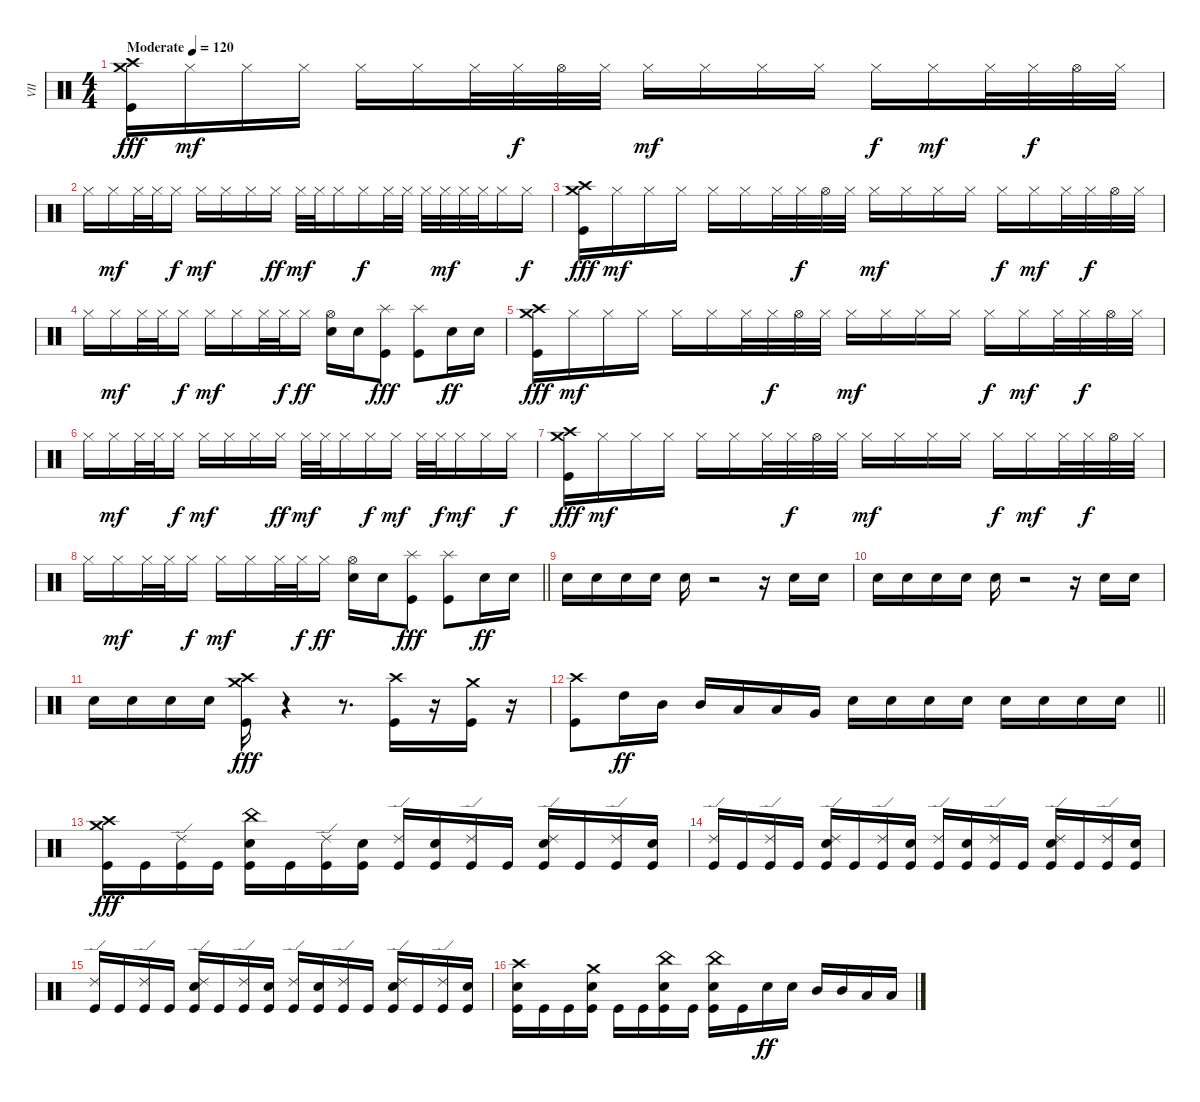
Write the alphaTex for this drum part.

\track ("VII" "VII") {instrument percussion}
\staff {score}
\articulation defaults
\ts (4 4)
\tempo (120 "Moderate")
\tempo 122
\tempo (120 "Moderate")
\clef neutral
\ks c
("Crash high (hit)" "Crash medium (hit)" "Kick (hit)").16{dy fff} "Hi-Hat (closed)".16{dy mf} "Hi-Hat (closed)".16 "Hi-Hat (closed)".16 "Hi-Hat (closed)".16 "Hi-Hat (closed)".16 "Hi-Hat (closed)".32 "Hi-Hat (closed)".32{dy f} "Hi-Hat (open)".32 "Hi-Hat (closed)".32 "Hi-Hat (closed)".16{dy mf} "Hi-Hat (closed)".16 "Hi-Hat (closed)".16 "Hi-Hat (closed)".16 "Hi-Hat (closed)".16{dy f} "Hi-Hat (closed)".16{dy mf} "Hi-Hat (closed)".32 "Hi-Hat (closed)".32{dy f} "Hi-Hat (open)".32 "Hi-Hat (closed)".32 |
"Hi-Hat (closed)".16 "Hi-Hat (closed)".16{dy mf} "Hi-Hat (closed)".32 "Hi-Hat (closed)".32 "Hi-Hat (closed)".16{dy f} "Hi-Hat (closed)".16{dy mf} "Hi-Hat (closed)".16 "Hi-Hat (closed)".16 "Hi-Hat (closed)".16{dy ff} "Hi-Hat (closed)".32{dy mf} "Hi-Hat (closed)".32 "Hi-Hat (closed)".16 "Hi-Hat (closed)".16{dy f} "Hi-Hat (closed)".32 "Hi-Hat (closed)".32 "Hi-Hat (closed)".32 "Hi-Hat (closed)".32{dy mf} "Hi-Hat (closed)".32 "Hi-Hat (closed)".32 "Hi-Hat (closed)".16 "Hi-Hat (closed)".16{dy f} |
("Crash high (hit)" "Crash medium (hit)" "Kick (hit)").16{dy fff} "Hi-Hat (closed)".16{dy mf} "Hi-Hat (closed)".16 "Hi-Hat (closed)".16 "Hi-Hat (closed)".16 "Hi-Hat (closed)".16 "Hi-Hat (closed)".32 "Hi-Hat (closed)".32{dy f} "Hi-Hat (open)".32 "Hi-Hat (closed)".32 "Hi-Hat (closed)".16{dy mf} "Hi-Hat (closed)".16 "Hi-Hat (closed)".16 "Hi-Hat (closed)".16 "Hi-Hat (closed)".16{dy f} "Hi-Hat (closed)".16{dy mf} "Hi-Hat (closed)".32 "Hi-Hat (closed)".32{dy f} "Hi-Hat (open)".32 "Hi-Hat (closed)".32 |
"Hi-Hat (closed)".16 "Hi-Hat (closed)".16{dy mf} "Hi-Hat (closed)".32 "Hi-Hat (closed)".32 "Hi-Hat (closed)".16{dy f} "Hi-Hat (closed)".16{dy mf} "Hi-Hat (closed)".16 "Hi-Hat (closed)".32 "Hi-Hat (closed)".32{dy f} "Hi-Hat (closed)".16{dy ff} ("Hi-Hat (open)" "Snare (hit) 2").16 "Snare (hit) 2".16 ("Splash (hit)" "Kick (hit)").8{dy fff} ("Splash (hit)" "Kick (hit)").8 "Snare (hit) 2".16{dy ff} "Snare (hit) 2".16 |
("Crash high (hit)" "Crash medium (hit)" "Kick (hit)").16{dy fff} "Hi-Hat (closed)".16{dy mf} "Hi-Hat (closed)".16 "Hi-Hat (closed)".16 "Hi-Hat (closed)".16 "Hi-Hat (closed)".16 "Hi-Hat (closed)".32 "Hi-Hat (closed)".32{dy f} "Hi-Hat (open)".32 "Hi-Hat (closed)".32 "Hi-Hat (closed)".16{dy mf} "Hi-Hat (closed)".16 "Hi-Hat (closed)".16 "Hi-Hat (closed)".16 "Hi-Hat (closed)".16{dy f} "Hi-Hat (closed)".16{dy mf} "Hi-Hat (closed)".32 "Hi-Hat (closed)".32{dy f} "Hi-Hat (open)".32 "Hi-Hat (closed)".32 |
"Hi-Hat (closed)".16 "Hi-Hat (closed)".16{dy mf} "Hi-Hat (closed)".32 "Hi-Hat (closed)".32 "Hi-Hat (closed)".16{dy f} "Hi-Hat (closed)".16{dy mf} "Hi-Hat (closed)".16 "Hi-Hat (closed)".16 "Hi-Hat (closed)".16{dy ff} "Hi-Hat (closed)".32{dy mf} "Hi-Hat (closed)".32 "Hi-Hat (closed)".16 "Hi-Hat (closed)".16{dy f} "Hi-Hat (closed)".16{dy mf} "Hi-Hat (closed)".32 "Hi-Hat (closed)".32{dy f} "Hi-Hat (closed)".16{dy mf} "Hi-Hat (closed)".16 "Hi-Hat (closed)".16{dy f} |
("Crash high (hit)" "Crash medium (hit)" "Kick (hit)").16{dy fff} "Hi-Hat (closed)".16{dy mf} "Hi-Hat (closed)".16 "Hi-Hat (closed)".16 "Hi-Hat (closed)".16 "Hi-Hat (closed)".16 "Hi-Hat (closed)".32 "Hi-Hat (closed)".32{dy f} "Hi-Hat (open)".32 "Hi-Hat (closed)".32 "Hi-Hat (closed)".16{dy mf} "Hi-Hat (closed)".16 "Hi-Hat (closed)".16 "Hi-Hat (closed)".16 "Hi-Hat (closed)".16{dy f} "Hi-Hat (closed)".16{dy mf} "Hi-Hat (closed)".32 "Hi-Hat (closed)".32{dy f} "Hi-Hat (open)".32 "Hi-Hat (closed)".32 |
\barLineRight lightlight "Hi-Hat (closed)".16 "Hi-Hat (closed)".16{dy mf} "Hi-Hat (closed)".32 "Hi-Hat (closed)".32 "Hi-Hat (closed)".16{dy f} "Hi-Hat (closed)".16{dy mf} "Hi-Hat (closed)".16 "Hi-Hat (closed)".32 "Hi-Hat (closed)".32{dy f} "Hi-Hat (closed)".16{dy ff}
("Hi-Hat (open)" "Snare (hit) 2").16 "Snare (hit) 2".16 ("Splash (hit)" "Kick (hit)").8{dy fff} ("Splash (hit)" "Kick (hit)").8 "Snare (hit) 2".16{dy ff} "Snare (hit) 2".16 |
"Snare (hit) 2".16 "Snare (hit) 2".16 "Snare (hit) 2".16 "Snare (hit) 2".16 "Snare (hit) 2".16 r.2 r.16 "Snare (hit) 2".16 "Snare (hit) 2".16 |
"Snare (hit) 2".16 "Snare (hit) 2".16 "Snare (hit) 2".16 "Snare (hit) 2".16 "Snare (hit) 2".16 r.2 r.16 "Snare (hit) 2".16 "Snare (hit) 2".16 |
"Snare (hit) 2".16 "Snare (hit) 2".16 "Snare (hit) 2".16 "Snare (hit) 2".16 ("Crash high (hit)" "Crash medium (hit)" "Kick (hit)").16{dy fff} r.4 r.8{d} ("Crash high (hit)" "Kick (hit)").16 r.16 ("Crash medium (hit)" "Kick (hit)").16 r.16 |
\barLineRight lightlight
("Crash high (hit)" "Kick (hit)").8 "High Tom (hit)".16{dy ff} "Mid Tom (hit)".16 "Mid Tom (hit)".16 "Low Tom (hit)".16 "Low Tom (hit)".16 "Very Low Tom (hit)".16 "Snare (hit) 2".16 "Snare (hit) 2".16 "Snare (hit) 2".16 "Snare (hit) 2".16 "Snare (hit) 2".16 "Snare (hit) 2".16 "Snare (hit) 2".16 "Snare (hit) 2".16 |
("Crash high (hit)" "Crash medium (hit)" "Kick (hit)").16{dy fff} "Kick (hit)".16 ("Ride (edge) 2" "Kick (hit)").16 "Kick (hit)".16 ("China (hit)" "Snare (hit) 2" "Kick (hit)").16 "Kick (hit)".16 ("Ride (edge) 2" "Kick (hit)").16 ("Snare (hit) 2" "Kick (hit)").16 ("Ride (edge) 2" "Kick (hit)").16 ("Snare (hit) 2" "Kick (hit)").16 ("Ride (edge) 2" "Kick (hit)").16 "Kick (hit)".16 ("Ride (edge) 2" "Snare (hit) 2" "Kick (hit)").16 "Kick (hit)".16 ("Ride (edge) 2" "Kick (hit)").16 ("Snare (hit) 2" "Kick (hit)").16 |
("Ride (edge) 2" "Kick (hit)").16 "Kick (hit)".16 ("Ride (edge) 2" "Kick (hit)").16 "Kick (hit)".16 ("Ride (edge) 2" "Snare (hit) 2" "Kick (hit)").16 "Kick (hit)".16 ("Ride (edge) 2" "Kick (hit)").16 ("Snare (hit) 2" "Kick (hit)").16 ("Ride (edge) 2" "Kick (hit)").16 ("Snare (hit) 2" "Kick (hit)").16 ("Ride (edge) 2" "Kick (hit)").16 "Kick (hit)".16 ("Ride (edge) 2" "Snare (hit) 2" "Kick (hit)").16 "Kick (hit)".16 ("Ride (edge) 2" "Kick (hit)").16 ("Snare (hit) 2" "Kick (hit)").16 |
("Ride (edge) 2" "Kick (hit)").16 "Kick (hit)".16 ("Ride (edge) 2" "Kick (hit)").16 "Kick (hit)".16 ("Ride (edge) 2" "Snare (hit) 2" "Kick (hit)").16 "Kick (hit)".16 ("Ride (edge) 2" "Kick (hit)").16 ("Snare (hit) 2" "Kick (hit)").16 ("Ride (edge) 2" "Kick (hit)").16 ("Snare (hit) 2" "Kick (hit)").16 ("Ride (edge) 2" "Kick (hit)").16 "Kick (hit)".16 ("Ride (edge) 2" "Snare (hit) 2" "Kick (hit)").16 "Kick (hit)".16 ("Ride (edge) 2" "Kick (hit)").16 ("Snare (hit) 2" "Kick (hit)").16 |
("Crash high (hit)" "Snare (hit) 2" "Kick (hit)").16 "Kick (hit)".16 "Kick (hit)".16 ("Crash medium (hit)" "Snare (hit) 2" "Kick (hit)").16 "Kick (hit)".16 "Kick (hit)".16 ("China (hit)" "Snare (hit) 2" "Kick (hit)").16 "Kick (hit)".16 ("China (hit)" "Snare (hit) 2" "Kick (hit)").16 "Kick (hit)".16 "Snare (hit) 2".16{dy ff} "Snare (hit) 2".16 "Mid Tom (hit)".16 "Mid Tom (hit)".16 "Low Tom (hit)".16 "Low Tom (hit)".16
